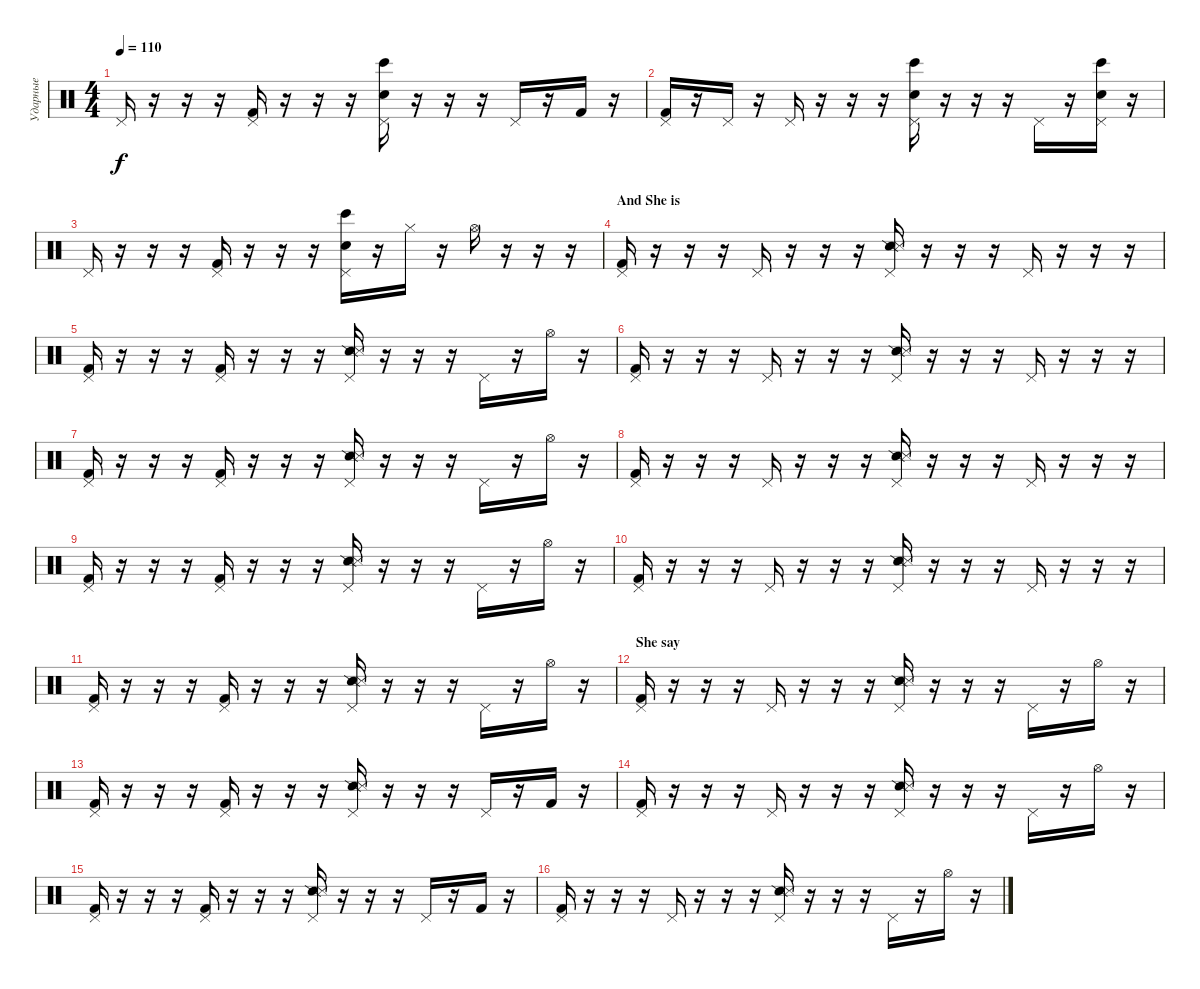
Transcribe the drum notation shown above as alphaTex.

\track ("Ударные" "Ударные") {instrument percussion}
\staff {score}
\articulation defaults
\ts (4 4)
\tempo 110
\clef neutral
\ks c "Pedal Hi-Hat (hit)".16{dy f}
r.16 r.16 r.16 ("Pedal Hi-Hat (hit)" "Kick (hit) 2").16 r.16 r.16 r.16 ("Pedal Hi-Hat (hit)" "Electric Snare (hit)" "Bongo High (hit)").16 r.16 r.16 r.16 "Pedal Hi-Hat (hit)".16 r.16 "Kick (hit) 2".16 r.16 |
("Pedal Hi-Hat (hit)" "Kick (hit) 2").16 r.16 "Pedal Hi-Hat (hit)".16 r.16 "Pedal Hi-Hat (hit)".16 r.16 r.16 r.16 ("Pedal Hi-Hat (hit)" "Electric Snare (hit)" "Bongo High (hit)").16 r.16 r.16 r.16 "Pedal Hi-Hat (hit)".16 r.16 ("Pedal Hi-Hat (hit)" "Electric Snare (hit)" "Bongo High (hit)").16 r.16 |
"Pedal Hi-Hat (hit)".16 r.16 r.16 r.16 ("Pedal Hi-Hat (hit)" "Kick (hit) 2").16 r.16 r.16 r.16 ("Pedal Hi-Hat (hit)" "Electric Snare (hit)" "Bongo High (hit)").16 r.16 "Hi-Hat (closed)".16 r.16 "Hi-Hat (open)".16 r.16 r.16 r.16 |
\section ("" "And She is")
("Pedal Hi-Hat (hit)" "Kick (hit) 2").16 r.16 r.16 r.16 "Pedal Hi-Hat (hit)".16 r.16 r.16 r.16 ("Pedal Hi-Hat (hit)" "Snare (side stick) 2" "Metronome (hit)").16 r.16 r.16 r.16 "Pedal Hi-Hat (hit)".16 r.16 r.16 r.16 |
("Pedal Hi-Hat (hit)" "Kick (hit) 2").16 r.16 r.16 r.16 ("Pedal Hi-Hat (hit)" "Kick (hit) 2").16 r.16 r.16 r.16 ("Pedal Hi-Hat (hit)" "Snare (side stick) 2" "Metronome (hit)").16 r.16 r.16 r.16 "Pedal Hi-Hat (hit)".16 r.16 "Hi-Hat (open)".16 r.16 |
("Pedal Hi-Hat (hit)" "Kick (hit) 2").16 r.16 r.16 r.16 "Pedal Hi-Hat (hit)".16 r.16 r.16 r.16 ("Pedal Hi-Hat (hit)" "Snare (side stick) 2" "Metronome (hit)").16 r.16 r.16 r.16 "Pedal Hi-Hat (hit)".16 r.16 r.16 r.16 |
("Pedal Hi-Hat (hit)" "Kick (hit) 2").16 r.16 r.16 r.16 ("Pedal Hi-Hat (hit)" "Kick (hit) 2").16 r.16 r.16 r.16 ("Pedal Hi-Hat (hit)" "Snare (side stick) 2" "Metronome (hit)").16 r.16 r.16 r.16 "Pedal Hi-Hat (hit)".16 r.16 "Hi-Hat (open)".16 r.16 |
("Pedal Hi-Hat (hit)" "Kick (hit) 2").16 r.16 r.16 r.16 "Pedal Hi-Hat (hit)".16 r.16 r.16 r.16 ("Pedal Hi-Hat (hit)" "Snare (side stick) 2" "Metronome (hit)").16 r.16 r.16 r.16 "Pedal Hi-Hat (hit)".16 r.16 r.16 r.16 |
("Pedal Hi-Hat (hit)" "Kick (hit) 2").16 r.16 r.16 r.16 ("Pedal Hi-Hat (hit)" "Kick (hit) 2").16 r.16 r.16 r.16 ("Pedal Hi-Hat (hit)" "Snare (side stick) 2" "Metronome (hit)").16 r.16 r.16 r.16 "Pedal Hi-Hat (hit)".16 r.16 "Hi-Hat (open)".16 r.16 |
("Pedal Hi-Hat (hit)" "Kick (hit) 2").16 r.16 r.16 r.16 "Pedal Hi-Hat (hit)".16 r.16 r.16 r.16 ("Pedal Hi-Hat (hit)" "Snare (side stick) 2" "Metronome (hit)").16 r.16 r.16 r.16 "Pedal Hi-Hat (hit)".16 r.16 r.16 r.16 |
("Pedal Hi-Hat (hit)" "Kick (hit) 2").16 r.16 r.16 r.16 ("Pedal Hi-Hat (hit)" "Kick (hit) 2").16 r.16 r.16 r.16 ("Pedal Hi-Hat (hit)" "Snare (side stick) 2" "Metronome (hit)").16 r.16 r.16 r.16 "Pedal Hi-Hat (hit)".16 r.16 "Hi-Hat (open)".16 r.16 |
\section ("" "She say")
("Pedal Hi-Hat (hit)" "Kick (hit) 2").16 r.16 r.16 r.16 "Pedal Hi-Hat (hit)".16 r.16 r.16 r.16 ("Pedal Hi-Hat (hit)" "Snare (side stick) 2" "Metronome (hit)").16 r.16 r.16 r.16 "Pedal Hi-Hat (hit)".16 r.16 "Hi-Hat (open)".16 r.16 |
("Pedal Hi-Hat (hit)" "Kick (hit) 2").16 r.16 r.16 r.16 ("Pedal Hi-Hat (hit)" "Kick (hit) 2").16 r.16 r.16 r.16 ("Pedal Hi-Hat (hit)" "Snare (side stick) 2" "Metronome (hit)").16 r.16 r.16 r.16 "Pedal Hi-Hat (hit)".16 r.16 "Kick (hit) 2".16 r.16 |
("Pedal Hi-Hat (hit)" "Kick (hit) 2").16 r.16 r.16 r.16 "Pedal Hi-Hat (hit)".16 r.16 r.16 r.16 ("Pedal Hi-Hat (hit)" "Snare (side stick) 2" "Metronome (hit)").16 r.16 r.16 r.16 "Pedal Hi-Hat (hit)".16 r.16 "Hi-Hat (open)".16 r.16 |
("Pedal Hi-Hat (hit)" "Kick (hit) 2").16 r.16 r.16 r.16 ("Pedal Hi-Hat (hit)" "Kick (hit) 2").16 r.16 r.16 r.16 ("Pedal Hi-Hat (hit)" "Snare (side stick) 2" "Metronome (hit)").16 r.16 r.16 r.16 "Pedal Hi-Hat (hit)".16 r.16 "Kick (hit) 2".16 r.16 |
("Pedal Hi-Hat (hit)" "Kick (hit) 2").16 r.16 r.16 r.16 "Pedal Hi-Hat (hit)".16 r.16 r.16 r.16 ("Pedal Hi-Hat (hit)" "Snare (side stick) 2" "Metronome (hit)").16 r.16 r.16 r.16 "Pedal Hi-Hat (hit)".16 r.16 "Hi-Hat (open)".16 r.16
